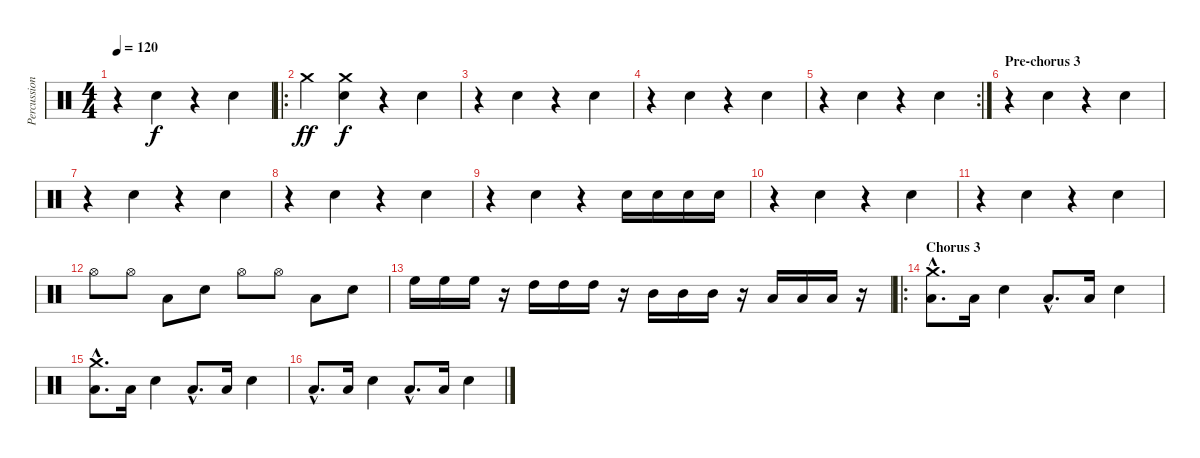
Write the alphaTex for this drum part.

\track ("Percussion 1" "Percussion") {instrument percussion}
\staff {score}
\articulation defaults
\ts (4 4)
\tempo 120
\clef neutral
\ks c
r.4{dy f} "Electric Snare (hit)".4 r.4 "Electric Snare (hit)".4 |
\ro "Crash medium (hit)".4{dy ff}
("Electric Snare (hit)" "Crash medium (hit)").4{dy f} r.4 "Electric Snare (hit)".4 |
r.4 "Electric Snare (hit)".4 r.4 "Electric Snare (hit)".4 |
r.4 "Electric Snare (hit)".4 r.4 "Electric Snare (hit)".4 |
\rc 2
r.4 "Electric Snare (hit)".4 r.4 "Electric Snare (hit)".4 |
\section ("" "Pre-chorus 3")
r.4 "Electric Snare (hit)".4 r.4 "Electric Snare (hit)".4 |
r.4 "Electric Snare (hit)".4 r.4 "Electric Snare (hit)".4 |
r.4 "Electric Snare (hit)".4 r.4 "Electric Snare (hit)".4 |
r.4 "Electric Snare (hit)".4 r.4 "Electric Snare (hit)".16 "Electric Snare (hit)".16 "Electric Snare (hit)".16 "Electric Snare (hit)".16 |
r.4 "Electric Snare (hit)".4 r.4 "Electric Snare (hit)".4 |
r.4 "Electric Snare (hit)".4 r.4 "Electric Snare (hit)".4 |
"Hi-Hat (open)".8 "Hi-Hat (open)".8 "Low Tom (hit)".8 "Electric Snare (hit)".8 "Hi-Hat (open)".8 "Hi-Hat (open)".8 "Low Tom (hit)".8 "Electric Snare (hit)".8 |
"High Floor Tom (hit)".16 "High Floor Tom (hit)".16 "High Floor Tom (hit)".16 r.16 "High Tom (hit)".16 "High Tom (hit)".16 "High Tom (hit)".16 r.16 "Mid Tom (hit)".16 "Mid Tom (hit)".16 "Mid Tom (hit)".16 r.16 "Low Tom (hit)".16 "Low Tom (hit)".16 "Low Tom (hit)".16 r.16 |
\ro
\section ("" "Chorus 3")
("Crash medium (hit)"{hac} "Low Tom (hit)"{hac}).8{d} "Low Tom (hit)".16 "Electric Snare (hit)".4 "Low Tom (hit)"{hac}.8{d} "Low Tom (hit)".16 "Electric Snare (hit)".4 |
("Crash medium (hit)"{hac} "Low Tom (hit)"{hac}).8{d} "Low Tom (hit)".16 "Electric Snare (hit)".4 "Low Tom (hit)"{hac}.8{d} "Low Tom (hit)".16 "Electric Snare (hit)".4 |
"Low Tom (hit)"{hac}.8{d} "Low Tom (hit)".16 "Electric Snare (hit)".4 "Low Tom (hit)"{hac}.8{d} "Low Tom (hit)".16 "Electric Snare (hit)".4
